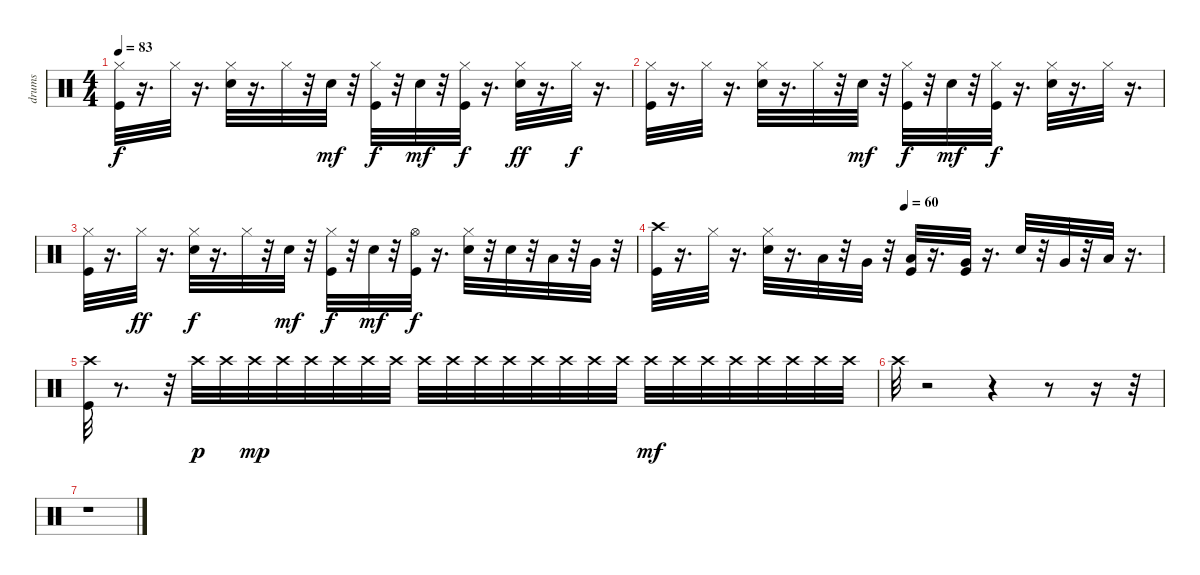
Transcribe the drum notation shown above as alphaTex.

\track ("drums" "drums") {instrument percussion}
\staff {score}
\articulation defaults
\ts (4 4)
\tempo 83
\clef neutral
\ks c
("Kick (hit)" "Hi-Hat (closed)").32{dy f} r.16{d} "Hi-Hat (closed)".32 r.16{d} ("Hi-Hat (closed)" "Electric Snare (hit)").32 r.16{d} "Hi-Hat (closed)".32 r.32 "Electric Snare (hit)".32{dy mf} r.32 ("Hi-Hat (closed)" "Kick (hit)").32{dy f} r.32 "Electric Snare (hit)".32{dy mf} r.32 ("Hi-Hat (closed)" "Kick (hit)").32{dy f} r.16{d} ("Hi-Hat (closed)" "Electric Snare (hit)").32{dy ff} r.16{d} "Hi-Hat (closed)".32{dy f} r.16{d} |
("Kick (hit)" "Hi-Hat (closed)").32 r.16{d} "Hi-Hat (closed)".32 r.16{d} ("Electric Snare (hit)" "Hi-Hat (closed)").32 r.16{d} "Hi-Hat (closed)".32 r.32 "Electric Snare (hit)".32{dy mf} r.32 ("Hi-Hat (closed)" "Kick (hit)").32{dy f} r.32 "Electric Snare (hit)".32{dy mf} r.32 ("Hi-Hat (closed)" "Kick (hit)").32{dy f} r.16{d} ("Electric Snare (hit)" "Hi-Hat (closed)").32 r.16{d} "Hi-Hat (closed)".32 r.16{d} |
("Kick (hit)" "Hi-Hat (closed)").32 r.16{d} "Hi-Hat (closed)".32{dy ff} r.16{d} ("Hi-Hat (closed)" "Electric Snare (hit)").32{dy f} r.16{d} "Hi-Hat (closed)".32 r.32 "Electric Snare (hit)".32{dy mf} r.32 ("Hi-Hat (closed)" "Kick (hit)").32{dy f} r.32 "Electric Snare (hit)".32{dy mf} r.32 ("Hi-Hat (open)" "Kick (hit)").32{dy f} r.16{d} ("Hi-Hat (closed)" "Electric Snare (hit)").32 r.32 "Electric Snare (hit)".32 r.32 "Low Tom (hit)".32 r.32 "Very Low Tom (hit)".32 r.32 |
\tempo (60 0.4895833333333333)
("Crash high (hit)" "Kick (hit)").32 r.16{d} "Hi-Hat (closed)".32 r.16{d} ("Electric Snare (hit)" "Hi-Hat (closed)").32 r.16{d} "Low Tom (hit)".32 r.32 "Very Low Tom (hit)".32 r.32 ("Low Floor Tom (hit)" "Kick (hit)").32 r.16{d} ("Very Low Tom (hit)" "Kick (hit)").32 r.16{d} "Electric Snare (hit)".32 r.32 "Very Low Tom (hit)".32 r.32 "Low Floor Tom (hit)".32 r.16{d} |
("Kick (hit)" "Crash high (hit)").32 r.8{d} r.32 "Crash high (hit)".32{dy p} "Crash high (hit)".32 "Crash high (hit)".32{dy mp} "Crash high (hit)".32 "Crash high (hit)".32 "Crash high (hit)".32 "Crash high (hit)".32 "Crash high (hit)".32 "Crash high (hit)".32 "Crash high (hit)".32 "Crash high (hit)".32 "Crash high (hit)".32 "Crash high (hit)".32 "Crash high (hit)".32 "Crash high (hit)".32 "Crash high (hit)".32 "Crash high (hit)".32{dy mf} "Crash high (hit)".32 "Crash high (hit)".32 "Crash high (hit)".32 "Crash high (hit)".32 "Crash high (hit)".32 "Crash high (hit)".32 "Crash high (hit)".32 |
"Crash high (hit)".32 r.2 r.4 r.8 r.16 r.32 |
r.1
